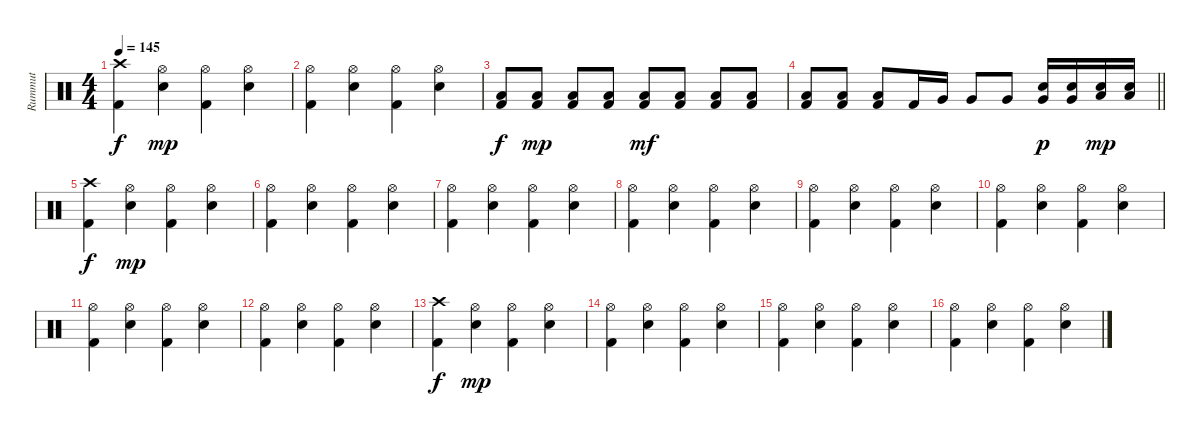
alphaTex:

\track ("Rummut" "Rummut") {instrument percussion}
\staff {score}
\articulation defaults
\ts (4 4)
\tempo 145
\clef neutral
\ks c
("Crash high (hit)" "Kick (hit) 2").4{dy f} ("Hi-Hat (open)" "Snare (hit) 2").4{dy mp} ("Hi-Hat (open)" "Kick (hit) 2").4 ("Hi-Hat (open)" "Snare (hit) 2").4 |
("Hi-Hat (open)" "Kick (hit) 2").4 ("Hi-Hat (open)" "Snare (hit) 2").4 ("Hi-Hat (open)" "Kick (hit) 2").4 ("Hi-Hat (open)" "Snare (hit) 2").4 |
("Low Floor Tom (hit)" "Kick (hit) 2").8{dy f} ("Low Floor Tom (hit)" "Kick (hit) 2").8{dy mp} ("Low Floor Tom (hit)" "Kick (hit) 2").8 ("Low Floor Tom (hit)" "Kick (hit) 2").8 ("Low Floor Tom (hit)" "Kick (hit) 2").8{dy mf} ("Low Floor Tom (hit)" "Kick (hit) 2").8 ("Low Floor Tom (hit)" "Kick (hit) 2").8 ("Low Floor Tom (hit)" "Kick (hit) 2").8 |
\barLineRight lightlight
("Low Floor Tom (hit)" "Kick (hit) 2").8 ("Low Floor Tom (hit)" "Kick (hit) 2").8 ("Low Floor Tom (hit)" "Kick (hit) 2").8 "Kick (hit) 2".16 "Very Low Tom (hit)".16 "Very Low Tom (hit)".8 "Very Low Tom (hit)".8 ("Very Low Tom (hit)" "Snare (hit) 2").16{dy p} ("Very Low Tom (hit)" "Snare (hit) 2").16 ("Low Floor Tom (hit)" "Snare (hit) 2").16{dy mp} ("Low Floor Tom (hit)" "Snare (hit) 2").16 |
("Crash high (hit)" "Kick (hit) 2").4{dy f} ("Hi-Hat (open)" "Snare (hit) 2").4{dy mp} ("Hi-Hat (open)" "Kick (hit) 2").4 ("Hi-Hat (open)" "Snare (hit) 2").4 |
("Hi-Hat (open)" "Kick (hit) 2").4 ("Hi-Hat (open)" "Snare (hit) 2").4 ("Hi-Hat (open)" "Kick (hit) 2").4 ("Hi-Hat (open)" "Snare (hit) 2").4 |
("Hi-Hat (open)" "Kick (hit) 2").4 ("Hi-Hat (open)" "Snare (hit) 2").4 ("Hi-Hat (open)" "Kick (hit) 2").4 ("Hi-Hat (open)" "Snare (hit) 2").4 |
("Hi-Hat (open)" "Kick (hit) 2").4 ("Hi-Hat (open)" "Snare (hit) 2").4 ("Hi-Hat (open)" "Kick (hit) 2").4 ("Hi-Hat (open)" "Snare (hit) 2").4 |
("Hi-Hat (open)" "Kick (hit) 2").4 ("Hi-Hat (open)" "Snare (hit) 2").4 ("Hi-Hat (open)" "Kick (hit) 2").4 ("Hi-Hat (open)" "Snare (hit) 2").4 |
("Hi-Hat (open)" "Kick (hit) 2").4 ("Hi-Hat (open)" "Snare (hit) 2").4 ("Hi-Hat (open)" "Kick (hit) 2").4 ("Hi-Hat (open)" "Snare (hit) 2").4 |
("Hi-Hat (open)" "Kick (hit) 2").4 ("Hi-Hat (open)" "Snare (hit) 2").4 ("Hi-Hat (open)" "Kick (hit) 2").4 ("Hi-Hat (open)" "Snare (hit) 2").4 |
("Hi-Hat (open)" "Kick (hit) 2").4 ("Hi-Hat (open)" "Snare (hit) 2").4 ("Hi-Hat (open)" "Kick (hit) 2").4 ("Hi-Hat (open)" "Snare (hit) 2").4 |
("Crash high (hit)" "Kick (hit) 2").4{dy f} ("Hi-Hat (open)" "Snare (hit) 2").4{dy mp} ("Hi-Hat (open)" "Kick (hit) 2").4 ("Hi-Hat (open)" "Snare (hit) 2").4 |
("Hi-Hat (open)" "Kick (hit) 2").4 ("Hi-Hat (open)" "Snare (hit) 2").4 ("Hi-Hat (open)" "Kick (hit) 2").4 ("Hi-Hat (open)" "Snare (hit) 2").4 |
("Hi-Hat (open)" "Kick (hit) 2").4 ("Hi-Hat (open)" "Snare (hit) 2").4 ("Hi-Hat (open)" "Kick (hit) 2").4 ("Hi-Hat (open)" "Snare (hit) 2").4 |
("Hi-Hat (open)" "Kick (hit) 2").4 ("Hi-Hat (open)" "Snare (hit) 2").4 ("Hi-Hat (open)" "Kick (hit) 2").4 ("Hi-Hat (open)" "Snare (hit) 2").4
